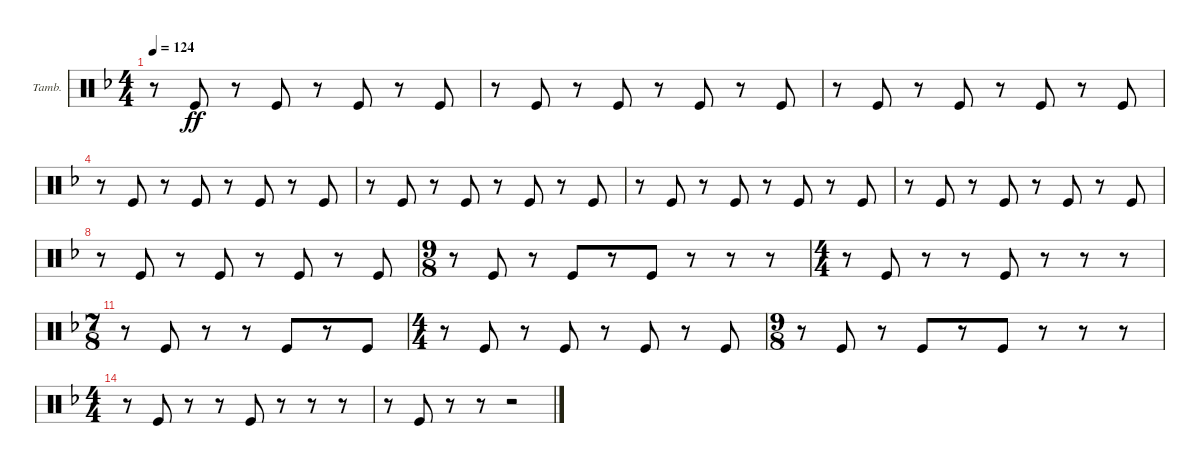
\bracketExtendMode nobrackets
\firstSystemTrackNameOrientation horizontal
\otherSystemsTrackNameOrientation horizontal
\defaultBarNumberDisplay FirstOfSystem
\track ("Tambourine" "Tamb.") {instrument percussion}
\staff {score}
\articulation defaults
\ts (4 4)
\tempo 124
\clef neutral
\scale
0.333333
\ks f
r.8{dy ff} "Kick (hit)".8 r.8 "Kick (hit)".8 r.8 "Kick (hit)".8 r.8 "Kick (hit)".8 |
\scale
0.333333 r.8 "Kick (hit)".8 r.8 "Kick (hit)".8 r.8 "Kick (hit)".8 r.8 "Kick (hit)".8 |
\scale
0.333333 r.8 "Kick (hit)".8 r.8 "Kick (hit)".8 r.8 "Kick (hit)".8 r.8 "Kick (hit)".8 |
\scale
0.333333 r.8 "Kick (hit)".8 r.8 "Kick (hit)".8 r.8 "Kick (hit)".8 r.8 "Kick (hit)".8 |
\scale
0.333333 r.8 "Kick (hit)".8 r.8 "Kick (hit)".8 r.8 "Kick (hit)".8 r.8 "Kick (hit)".8 |
\scale
0.333333 r.8 "Kick (hit)".8 r.8 "Kick (hit)".8 r.8 "Kick (hit)".8 r.8 "Kick (hit)".8 |
\scale
0.333333 r.8 "Kick (hit)".8 r.8 "Kick (hit)".8 r.8 "Kick (hit)".8 r.8 "Kick (hit)".8 |
\scale
0.333333 r.8 "Kick (hit)".8 r.8 "Kick (hit)".8 r.8 "Kick (hit)".8 r.8 "Kick (hit)".8 |
\ts (9 8)
\scale
0.333333 r.8 "Kick (hit)".8 r.8 "Kick (hit)".8 r.8 "Kick (hit)".8 r.8 r.8 r.8 |
\ts (4 4)
\scale
0.333333 r.8 "Kick (hit)".8 r.8 r.8 "Kick (hit)".8 r.8 r.8 r.8 |
\ts (7 8)
\scale
0.333333 r.8 "Kick (hit)".8 r.8 r.8 "Kick (hit)".8 r.8 "Kick (hit)".8 |
\ts (4 4)
\scale
0.333333 r.8 "Kick (hit)".8 r.8 "Kick (hit)".8 r.8 "Kick (hit)".8 r.8 "Kick (hit)".8 |
\ts (9 8)
\scale
0.333333 r.8 "Kick (hit)".8 r.8 "Kick (hit)".8 r.8 "Kick (hit)".8 r.8 r.8 r.8 |
\ts (4 4)
\scale
0.333333 r.8 "Kick (hit)".8 r.8 r.8 "Kick (hit)".8 r.8 r.8 r.8 |
r.8 "Kick (hit)".8 r.8 r.8 r.2
